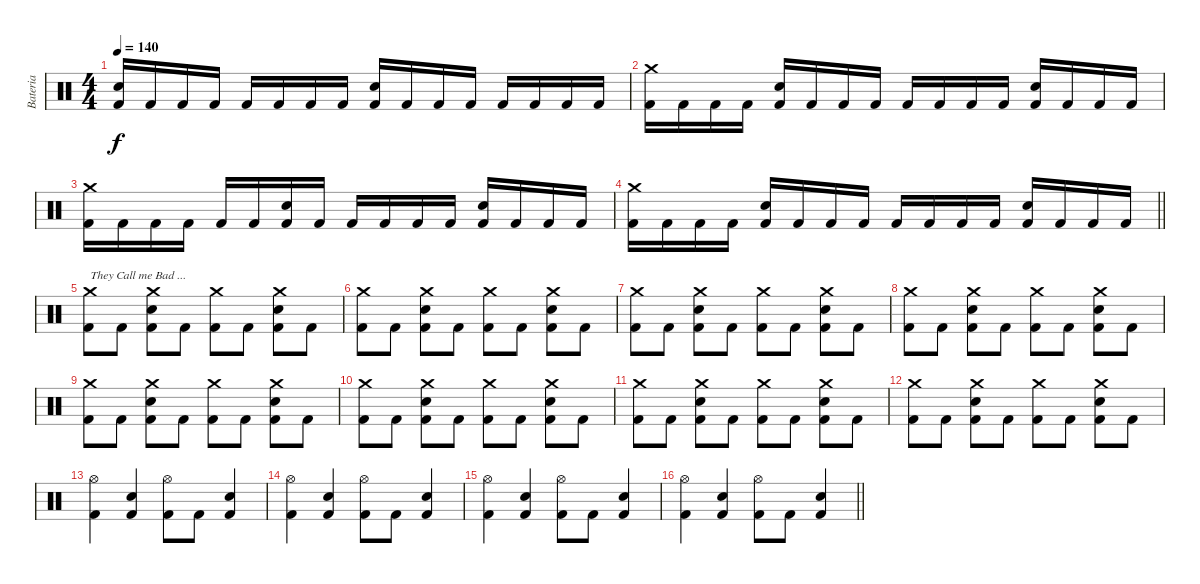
\track ("Bateria" "Bateria") {instrument percussion}
\staff {score}
\articulation defaults
\ts (4 4)
\tempo 140
\clef neutral
\ks c
("Kick (hit) 2" "Electric Snare (hit)").16{dy f} "Kick (hit) 2".16 "Kick (hit) 2".16 "Kick (hit) 2".16 "Kick (hit) 2".16 "Kick (hit) 2".16 "Kick (hit) 2".16 "Kick (hit) 2".16 ("Kick (hit) 2" "Electric Snare (hit)").16 "Kick (hit) 2".16 "Kick (hit) 2".16 "Kick (hit) 2".16 "Kick (hit) 2".16 "Kick (hit) 2".16 "Kick (hit) 2".16 "Kick (hit) 2".16 |
("Kick (hit) 2" "Crash medium (hit)").16 "Kick (hit) 2".16 "Kick (hit) 2".16 "Kick (hit) 2".16 ("Kick (hit) 2" "Electric Snare (hit)").16 "Kick (hit) 2".16 "Kick (hit) 2".16 "Kick (hit) 2".16 "Kick (hit) 2".16 "Kick (hit) 2".16 "Kick (hit) 2".16 "Kick (hit) 2".16 ("Kick (hit) 2" "Electric Snare (hit)").16 "Kick (hit) 2".16 "Kick (hit) 2".16 "Kick (hit) 2".16 |
("Kick (hit) 2" "Crash medium (hit)").16 "Kick (hit) 2".16 "Kick (hit) 2".16 "Kick (hit) 2".16 "Kick (hit) 2".16 "Kick (hit) 2".16 ("Kick (hit) 2" "Electric Snare (hit)").16 "Kick (hit) 2".16 "Kick (hit) 2".16 "Kick (hit) 2".16 "Kick (hit) 2".16 "Kick (hit) 2".16 ("Kick (hit) 2" "Electric Snare (hit)").16 "Kick (hit) 2".16 "Kick (hit) 2".16 "Kick (hit) 2".16 |
\barLineRight lightlight
("Kick (hit) 2" "Crash medium (hit)").16 "Kick (hit) 2".16 "Kick (hit) 2".16 "Kick (hit) 2".16 ("Kick (hit) 2" "Electric Snare (hit)").16 "Kick (hit) 2".16 "Kick (hit) 2".16 "Kick (hit) 2".16 "Kick (hit) 2".16 "Kick (hit) 2".16 "Kick (hit) 2".16 "Kick (hit) 2".16 ("Kick (hit) 2" "Electric Snare (hit)").16 "Kick (hit) 2".16 "Kick (hit) 2".16 "Kick (hit) 2".16 |
("Kick (hit) 2" "Crash medium (hit)").8{txt "They Call me Bad ..."} "Kick (hit) 2".8 ("Kick (hit) 2" "Crash medium (hit)" "Electric Snare (hit)").8 "Kick (hit) 2".8 ("Kick (hit) 2" "Crash medium (hit)").8 "Kick (hit) 2".8 ("Kick (hit) 2" "Crash medium (hit)" "Electric Snare (hit)").8 "Kick (hit) 2".8 |
("Kick (hit) 2" "Crash medium (hit)").8 "Kick (hit) 2".8 ("Kick (hit) 2" "Crash medium (hit)" "Electric Snare (hit)").8 "Kick (hit) 2".8 ("Kick (hit) 2" "Crash medium (hit)").8 "Kick (hit) 2".8 ("Kick (hit) 2" "Crash medium (hit)" "Electric Snare (hit)").8 "Kick (hit) 2".8 |
("Kick (hit) 2" "Crash medium (hit)").8 "Kick (hit) 2".8 ("Kick (hit) 2" "Crash medium (hit)" "Electric Snare (hit)").8 "Kick (hit) 2".8 ("Kick (hit) 2" "Crash medium (hit)").8 "Kick (hit) 2".8 ("Kick (hit) 2" "Crash medium (hit)" "Electric Snare (hit)").8 "Kick (hit) 2".8 |
("Kick (hit) 2" "Crash medium (hit)").8 "Kick (hit) 2".8 ("Kick (hit) 2" "Crash medium (hit)" "Electric Snare (hit)").8 "Kick (hit) 2".8 ("Kick (hit) 2" "Crash medium (hit)").8 "Kick (hit) 2".8 ("Kick (hit) 2" "Crash medium (hit)" "Electric Snare (hit)").8 "Kick (hit) 2".8 |
("Kick (hit) 2" "Crash medium (hit)").8 "Kick (hit) 2".8 ("Kick (hit) 2" "Crash medium (hit)" "Electric Snare (hit)").8 "Kick (hit) 2".8 ("Kick (hit) 2" "Crash medium (hit)").8 "Kick (hit) 2".8 ("Kick (hit) 2" "Crash medium (hit)" "Electric Snare (hit)").8 "Kick (hit) 2".8 |
("Kick (hit) 2" "Crash medium (hit)").8 "Kick (hit) 2".8 ("Kick (hit) 2" "Crash medium (hit)" "Electric Snare (hit)").8 "Kick (hit) 2".8 ("Kick (hit) 2" "Crash medium (hit)").8 "Kick (hit) 2".8 ("Kick (hit) 2" "Crash medium (hit)" "Electric Snare (hit)").8 "Kick (hit) 2".8 |
("Kick (hit) 2" "Crash medium (hit)").8 "Kick (hit) 2".8 ("Kick (hit) 2" "Crash medium (hit)" "Electric Snare (hit)").8 "Kick (hit) 2".8 ("Kick (hit) 2" "Crash medium (hit)").8 "Kick (hit) 2".8 ("Kick (hit) 2" "Crash medium (hit)" "Electric Snare (hit)").8 "Kick (hit) 2".8 |
("Kick (hit) 2" "Crash medium (hit)").8 "Kick (hit) 2".8 ("Kick (hit) 2" "Crash medium (hit)" "Electric Snare (hit)").8 "Kick (hit) 2".8 ("Kick (hit) 2" "Crash medium (hit)").8 "Kick (hit) 2".8 ("Kick (hit) 2" "Crash medium (hit)" "Electric Snare (hit)").8 "Kick (hit) 2".8 |
("Kick (hit) 2" "Hi-Hat (open)").4 ("Kick (hit) 2" "Electric Snare (hit)").4 ("Kick (hit) 2" "Hi-Hat (open)").8 "Kick (hit) 2".8 ("Kick (hit) 2" "Electric Snare (hit)").4 |
("Kick (hit) 2" "Hi-Hat (open)").4 ("Kick (hit) 2" "Electric Snare (hit)").4 ("Kick (hit) 2" "Hi-Hat (open)").8 "Kick (hit) 2".8 ("Kick (hit) 2" "Electric Snare (hit)").4 |
("Kick (hit) 2" "Hi-Hat (open)").4 ("Kick (hit) 2" "Electric Snare (hit)").4 ("Kick (hit) 2" "Hi-Hat (open)").8 "Kick (hit) 2".8 ("Kick (hit) 2" "Electric Snare (hit)").4 |
\barLineRight lightlight
("Kick (hit) 2" "Hi-Hat (open)").4 ("Kick (hit) 2" "Electric Snare (hit)").4 ("Kick (hit) 2" "Hi-Hat (open)").8 "Kick (hit) 2".8 ("Kick (hit) 2" "Electric Snare (hit)").4
